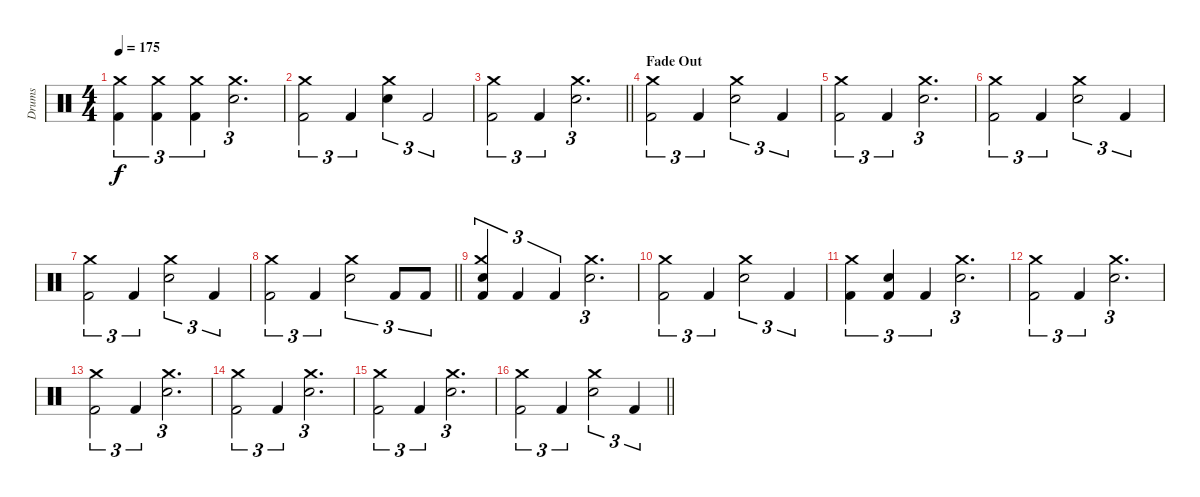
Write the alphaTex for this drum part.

\track ("Drums" "Drums") {instrument percussion}
\staff {score}
\articulation defaults
\ts (4 4)
\section ("" "")
\tempo 175
\clef neutral
\ks c
("Kick (hit) 2" "Crash medium (hit)").4{tu (3 2) dy f} ("Kick (hit) 2" "Crash medium (hit)").4{tu (3 2)} ("Kick (hit) 2" "Crash medium (hit)").4{tu (3 2)} ("Snare (hit) 2" "Crash medium (hit)").2{d tu (3 2)} |
("Kick (hit) 2" "Crash medium (hit)").2{tu (3 2)} "Kick (hit) 2".4{tu (3 2)} ("Snare (hit) 2" "Crash medium (hit)").4{tu (3 2)} "Kick (hit) 2".2{tu (3 2)} |
\barLineRight lightlight
("Kick (hit) 2" "Crash medium (hit)").2{tu (3 2)} "Kick (hit) 2".4{tu (3 2)} ("Snare (hit) 2" "Crash medium (hit)").2{d tu (3 2)} |
\section ("" "Fade Out")
("Kick (hit) 2" "Crash medium (hit)").2{tu (3 2) volume 11} "Kick (hit) 2".4{tu (3 2)} ("Snare (hit) 2" "Crash medium (hit)").2{tu (3 2)} "Kick (hit) 2".4{tu (3 2)} |
("Kick (hit) 2" "Crash medium (hit)").2{tu (3 2)} "Kick (hit) 2".4{tu (3 2)} ("Snare (hit) 2" "Crash medium (hit)").2{d tu (3 2)} |
("Kick (hit) 2" "Crash medium (hit)").2{tu (3 2)} "Kick (hit) 2".4{tu (3 2)} ("Snare (hit) 2" "Crash medium (hit)").2{tu (3 2)} "Kick (hit) 2".4{tu (3 2)} |
("Kick (hit) 2" "Crash medium (hit)").2{tu (3 2)} "Kick (hit) 2".4{tu (3 2)} ("Snare (hit) 2" "Crash medium (hit)").2{tu (3 2)} "Kick (hit) 2".4{tu (3 2)} |
\barLineRight lightlight
("Kick (hit) 2" "Crash medium (hit)").2{tu (3 2) volume 9} "Kick (hit) 2".4{tu (3 2)} ("Snare (hit) 2" "Crash medium (hit)").2{tu (3 2)} "Kick (hit) 2".8{tu (3 2)} "Kick (hit) 2".8{tu (3 2)} |
\section ("" "")
("Kick (hit) 2" "Snare (hit) 2" "Crash medium (hit)").4{tu (3 2)} "Kick (hit) 2".4{tu (3 2)} "Kick (hit) 2".4{tu (3 2)} ("Snare (hit) 2" "Crash medium (hit)").2{d tu (3 2)} |
("Kick (hit) 2" "Crash medium (hit)").2{tu (3 2)} "Kick (hit) 2".4{tu (3 2)} ("Snare (hit) 2" "Crash medium (hit)").2{tu (3 2)} "Kick (hit) 2".4{tu (3 2)} |
("Kick (hit) 2" "Crash medium (hit)").4{tu (3 2)} ("Kick (hit) 2" "Snare (hit) 2").4{tu (3 2)} "Kick (hit) 2".4{tu (3 2)} ("Snare (hit) 2" "Crash medium (hit)").2{d tu (3 2)} |
("Kick (hit) 2" "Crash medium (hit)").2{tu (3 2) volume 6} "Kick (hit) 2".4{tu (3 2)} ("Snare (hit) 2" "Crash medium (hit)").2{d tu (3 2)} |
("Kick (hit) 2" "Crash medium (hit)").2{tu (3 2)} "Kick (hit) 2".4{tu (3 2)} ("Snare (hit) 2" "Crash medium (hit)").2{d tu (3 2)} |
("Kick (hit) 2" "Crash medium (hit)").2{tu (3 2)} "Kick (hit) 2".4{tu (3 2)} ("Snare (hit) 2" "Crash medium (hit)").2{d tu (3 2)} |
("Kick (hit) 2" "Crash medium (hit)").2{tu (3 2)} "Kick (hit) 2".4{tu (3 2)} ("Snare (hit) 2" "Crash medium (hit)").2{d tu (3 2)} |
\barLineRight lightlight
("Kick (hit) 2" "Crash medium (hit)").2{tu (3 2) volume 3} "Kick (hit) 2".4{tu (3 2)} ("Snare (hit) 2" "Crash medium (hit)").2{tu (3 2)} "Kick (hit) 2".4{tu (3 2)}
